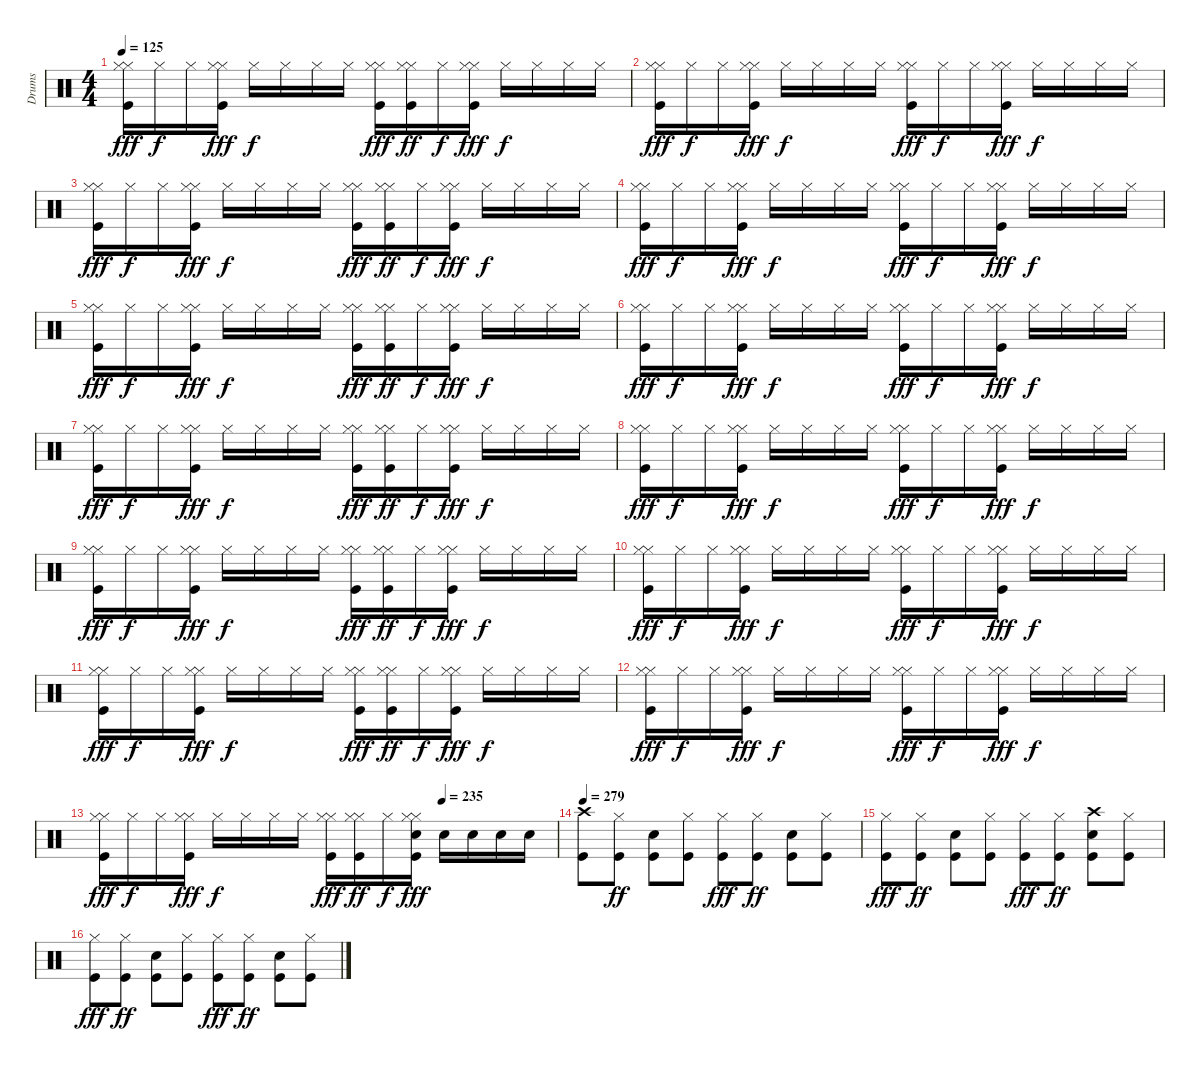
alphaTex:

\track ("Drums" "Drums") {instrument percussion}
\staff {score}
\articulation defaults
\ts (4 4)
\tempo 125
\clef neutral
\ks c
("Hi-Hat (closed)" "Hi-Hat (closed)" "Kick (hit)").16{dy fff} "Hi-Hat (closed)".16{dy f} "Hi-Hat (closed)".16 ("Hi-Hat (closed)" "Hi-Hat (closed)" "Kick (hit)").16{dy fff} "Hi-Hat (closed)".16{dy f} "Hi-Hat (closed)".16 "Hi-Hat (closed)".16 "Hi-Hat (closed)".16 ("Hi-Hat (closed)" "Hi-Hat (closed)" "Kick (hit)").16{dy fff} ("Hi-Hat (closed)" "Hi-Hat (closed)" "Kick (hit)").16{dy ff} "Hi-Hat (closed)".16{dy f} ("Hi-Hat (closed)" "Hi-Hat (closed)" "Kick (hit)").16{dy fff} "Hi-Hat (closed)".16{dy f} "Hi-Hat (closed)".16 "Hi-Hat (closed)".16 "Hi-Hat (closed)".16 |
("Hi-Hat (closed)" "Hi-Hat (closed)" "Kick (hit)").16{dy fff} "Hi-Hat (closed)".16{dy f} "Hi-Hat (closed)".16 ("Hi-Hat (closed)" "Hi-Hat (closed)" "Kick (hit)").16{dy fff} "Hi-Hat (closed)".16{dy f} "Hi-Hat (closed)".16 "Hi-Hat (closed)".16 "Hi-Hat (closed)".16 ("Hi-Hat (closed)" "Hi-Hat (closed)" "Kick (hit)").16{dy fff} "Hi-Hat (closed)".16{dy f} "Hi-Hat (closed)".16 ("Hi-Hat (closed)" "Hi-Hat (closed)" "Kick (hit)").16{dy fff} "Hi-Hat (closed)".16{dy f} "Hi-Hat (closed)".16 "Hi-Hat (closed)".16 "Hi-Hat (closed)".16 |
("Hi-Hat (closed)" "Hi-Hat (closed)" "Kick (hit)").16{dy fff} "Hi-Hat (closed)".16{dy f} "Hi-Hat (closed)".16 ("Hi-Hat (closed)" "Hi-Hat (closed)" "Kick (hit)").16{dy fff} "Hi-Hat (closed)".16{dy f} "Hi-Hat (closed)".16 "Hi-Hat (closed)".16 "Hi-Hat (closed)".16 ("Hi-Hat (closed)" "Hi-Hat (closed)" "Kick (hit)").16{dy fff} ("Hi-Hat (closed)" "Hi-Hat (closed)" "Kick (hit)").16{dy ff} "Hi-Hat (closed)".16{dy f} ("Hi-Hat (closed)" "Hi-Hat (closed)" "Kick (hit)").16{dy fff} "Hi-Hat (closed)".16{dy f} "Hi-Hat (closed)".16 "Hi-Hat (closed)".16 "Hi-Hat (closed)".16 |
("Hi-Hat (closed)" "Hi-Hat (closed)" "Kick (hit)").16{dy fff} "Hi-Hat (closed)".16{dy f} "Hi-Hat (closed)".16 ("Hi-Hat (closed)" "Hi-Hat (closed)" "Kick (hit)").16{dy fff} "Hi-Hat (closed)".16{dy f} "Hi-Hat (closed)".16 "Hi-Hat (closed)".16 "Hi-Hat (closed)".16 ("Hi-Hat (closed)" "Hi-Hat (closed)" "Kick (hit)").16{dy fff} "Hi-Hat (closed)".16{dy f} "Hi-Hat (closed)".16 ("Hi-Hat (closed)" "Hi-Hat (closed)" "Kick (hit)").16{dy fff} "Hi-Hat (closed)".16{dy f} "Hi-Hat (closed)".16 "Hi-Hat (closed)".16 "Hi-Hat (closed)".16 |
("Hi-Hat (closed)" "Hi-Hat (closed)" "Kick (hit)").16{dy fff} "Hi-Hat (closed)".16{dy f} "Hi-Hat (closed)".16 ("Hi-Hat (closed)" "Hi-Hat (closed)" "Kick (hit)").16{dy fff} "Hi-Hat (closed)".16{dy f} "Hi-Hat (closed)".16 "Hi-Hat (closed)".16 "Hi-Hat (closed)".16 ("Hi-Hat (closed)" "Hi-Hat (closed)" "Kick (hit)").16{dy fff} ("Hi-Hat (closed)" "Hi-Hat (closed)" "Kick (hit)").16{dy ff} "Hi-Hat (closed)".16{dy f} ("Hi-Hat (closed)" "Hi-Hat (closed)" "Kick (hit)").16{dy fff} "Hi-Hat (closed)".16{dy f} "Hi-Hat (closed)".16 "Hi-Hat (closed)".16 "Hi-Hat (closed)".16 |
("Hi-Hat (closed)" "Hi-Hat (closed)" "Kick (hit)").16{dy fff} "Hi-Hat (closed)".16{dy f} "Hi-Hat (closed)".16 ("Hi-Hat (closed)" "Hi-Hat (closed)" "Kick (hit)").16{dy fff} "Hi-Hat (closed)".16{dy f} "Hi-Hat (closed)".16 "Hi-Hat (closed)".16 "Hi-Hat (closed)".16 ("Hi-Hat (closed)" "Hi-Hat (closed)" "Kick (hit)").16{dy fff} "Hi-Hat (closed)".16{dy f} "Hi-Hat (closed)".16 ("Hi-Hat (closed)" "Hi-Hat (closed)" "Kick (hit)").16{dy fff} "Hi-Hat (closed)".16{dy f} "Hi-Hat (closed)".16 "Hi-Hat (closed)".16 "Hi-Hat (closed)".16 |
("Hi-Hat (closed)" "Hi-Hat (closed)" "Kick (hit)").16{dy fff} "Hi-Hat (closed)".16{dy f} "Hi-Hat (closed)".16 ("Hi-Hat (closed)" "Hi-Hat (closed)" "Kick (hit)").16{dy fff} "Hi-Hat (closed)".16{dy f} "Hi-Hat (closed)".16 "Hi-Hat (closed)".16 "Hi-Hat (closed)".16 ("Hi-Hat (closed)" "Hi-Hat (closed)" "Kick (hit)").16{dy fff} ("Hi-Hat (closed)" "Hi-Hat (closed)" "Kick (hit)").16{dy ff} "Hi-Hat (closed)".16{dy f} ("Hi-Hat (closed)" "Hi-Hat (closed)" "Kick (hit)").16{dy fff} "Hi-Hat (closed)".16{dy f} "Hi-Hat (closed)".16 "Hi-Hat (closed)".16 "Hi-Hat (closed)".16 |
("Hi-Hat (closed)" "Hi-Hat (closed)" "Kick (hit)").16{dy fff} "Hi-Hat (closed)".16{dy f} "Hi-Hat (closed)".16 ("Hi-Hat (closed)" "Hi-Hat (closed)" "Kick (hit)").16{dy fff} "Hi-Hat (closed)".16{dy f} "Hi-Hat (closed)".16 "Hi-Hat (closed)".16 "Hi-Hat (closed)".16 ("Hi-Hat (closed)" "Hi-Hat (closed)" "Kick (hit)").16{dy fff} "Hi-Hat (closed)".16{dy f} "Hi-Hat (closed)".16 ("Hi-Hat (closed)" "Hi-Hat (closed)" "Kick (hit)").16{dy fff} "Hi-Hat (closed)".16{dy f} "Hi-Hat (closed)".16 "Hi-Hat (closed)".16 "Hi-Hat (closed)".16 |
("Hi-Hat (closed)" "Hi-Hat (closed)" "Kick (hit)").16{dy fff} "Hi-Hat (closed)".16{dy f} "Hi-Hat (closed)".16 ("Hi-Hat (closed)" "Hi-Hat (closed)" "Kick (hit)").16{dy fff} "Hi-Hat (closed)".16{dy f} "Hi-Hat (closed)".16 "Hi-Hat (closed)".16 "Hi-Hat (closed)".16 ("Hi-Hat (closed)" "Hi-Hat (closed)" "Kick (hit)").16{dy fff} ("Hi-Hat (closed)" "Hi-Hat (closed)" "Kick (hit)").16{dy ff} "Hi-Hat (closed)".16{dy f} ("Hi-Hat (closed)" "Hi-Hat (closed)" "Kick (hit)").16{dy fff} "Hi-Hat (closed)".16{dy f} "Hi-Hat (closed)".16 "Hi-Hat (closed)".16 "Hi-Hat (closed)".16 |
("Hi-Hat (closed)" "Hi-Hat (closed)" "Kick (hit)").16{dy fff} "Hi-Hat (closed)".16{dy f} "Hi-Hat (closed)".16 ("Hi-Hat (closed)" "Hi-Hat (closed)" "Kick (hit)").16{dy fff} "Hi-Hat (closed)".16{dy f} "Hi-Hat (closed)".16 "Hi-Hat (closed)".16 "Hi-Hat (closed)".16 ("Hi-Hat (closed)" "Hi-Hat (closed)" "Kick (hit)").16{dy fff} "Hi-Hat (closed)".16{dy f} "Hi-Hat (closed)".16 ("Hi-Hat (closed)" "Hi-Hat (closed)" "Kick (hit)").16{dy fff} "Hi-Hat (closed)".16{dy f} "Hi-Hat (closed)".16 "Hi-Hat (closed)".16 "Hi-Hat (closed)".16 |
("Hi-Hat (closed)" "Hi-Hat (closed)" "Kick (hit)").16{dy fff} "Hi-Hat (closed)".16{dy f} "Hi-Hat (closed)".16 ("Hi-Hat (closed)" "Hi-Hat (closed)" "Kick (hit)").16{dy fff} "Hi-Hat (closed)".16{dy f} "Hi-Hat (closed)".16 "Hi-Hat (closed)".16 "Hi-Hat (closed)".16 ("Hi-Hat (closed)" "Hi-Hat (closed)" "Kick (hit)").16{dy fff} ("Hi-Hat (closed)" "Hi-Hat (closed)" "Kick (hit)").16{dy ff} "Hi-Hat (closed)".16{dy f} ("Hi-Hat (closed)" "Hi-Hat (closed)" "Kick (hit)").16{dy fff} "Hi-Hat (closed)".16{dy f} "Hi-Hat (closed)".16 "Hi-Hat (closed)".16 "Hi-Hat (closed)".16 |
("Hi-Hat (closed)" "Hi-Hat (closed)" "Kick (hit)").16{dy fff} "Hi-Hat (closed)".16{dy f} "Hi-Hat (closed)".16 ("Hi-Hat (closed)" "Hi-Hat (closed)" "Kick (hit)").16{dy fff} "Hi-Hat (closed)".16{dy f} "Hi-Hat (closed)".16 "Hi-Hat (closed)".16 "Hi-Hat (closed)".16 ("Hi-Hat (closed)" "Hi-Hat (closed)" "Kick (hit)").16{dy fff} "Hi-Hat (closed)".16{dy f} "Hi-Hat (closed)".16 ("Hi-Hat (closed)" "Hi-Hat (closed)" "Kick (hit)").16{dy fff} "Hi-Hat (closed)".16{dy f} "Hi-Hat (closed)".16 "Hi-Hat (closed)".16 "Hi-Hat (closed)".16 |
\tempo (235 0.75)
("Hi-Hat (closed)" "Hi-Hat (closed)" "Kick (hit)").16{dy fff} "Hi-Hat (closed)".16{dy f} "Hi-Hat (closed)".16 ("Hi-Hat (closed)" "Hi-Hat (closed)" "Kick (hit)").16{dy fff} "Hi-Hat (closed)".16{dy f} "Hi-Hat (closed)".16 "Hi-Hat (closed)".16 "Hi-Hat (closed)".16 ("Hi-Hat (closed)" "Hi-Hat (closed)" "Kick (hit)").16{dy fff} ("Hi-Hat (closed)" "Hi-Hat (closed)" "Kick (hit)").16{dy ff} "Hi-Hat (closed)".16{dy f} ("Hi-Hat (closed)" "Hi-Hat (closed)" "Snare (hit) 2" "Kick (hit)").16{dy fff} "Snare (hit) 2".16{volume 8} "Snare (hit) 2".16{volume 14} "Snare (hit) 2".16 "Snare (hit) 2".16 |
\tempo 279
("Crash high (hit)" "Kick (hit)").8 ("Hi-Hat (closed)" "Kick (hit)").8{dy ff} ("Snare (hit) 2" "Kick (hit)").8 ("Hi-Hat (closed)" "Kick (hit)").8 ("Hi-Hat (closed)" "Kick (hit)").8{dy fff} ("Hi-Hat (closed)" "Kick (hit)").8{dy ff} ("Snare (hit) 2" "Kick (hit)").8 ("Hi-Hat (closed)" "Kick (hit)").8 |
("Hi-Hat (closed)" "Kick (hit)").8{dy fff} ("Hi-Hat (closed)" "Kick (hit)").8{dy ff} ("Snare (hit) 2" "Kick (hit)").8 ("Hi-Hat (closed)" "Kick (hit)").8 ("Hi-Hat (closed)" "Kick (hit)").8{dy fff} ("Hi-Hat (closed)" "Kick (hit)").8{dy ff} ("Crash high (hit)" "Snare (hit) 2" "Kick (hit)").8 ("Hi-Hat (closed)" "Kick (hit)").8 |
("Hi-Hat (closed)" "Kick (hit)").8{dy fff} ("Hi-Hat (closed)" "Kick (hit)").8{dy ff} ("Snare (hit) 2" "Kick (hit)").8 ("Hi-Hat (closed)" "Kick (hit)").8 ("Hi-Hat (closed)" "Kick (hit)").8{dy fff} ("Hi-Hat (closed)" "Kick (hit)").8{dy ff} ("Snare (hit) 2" "Kick (hit)").8 ("Hi-Hat (closed)" "Kick (hit)").8
